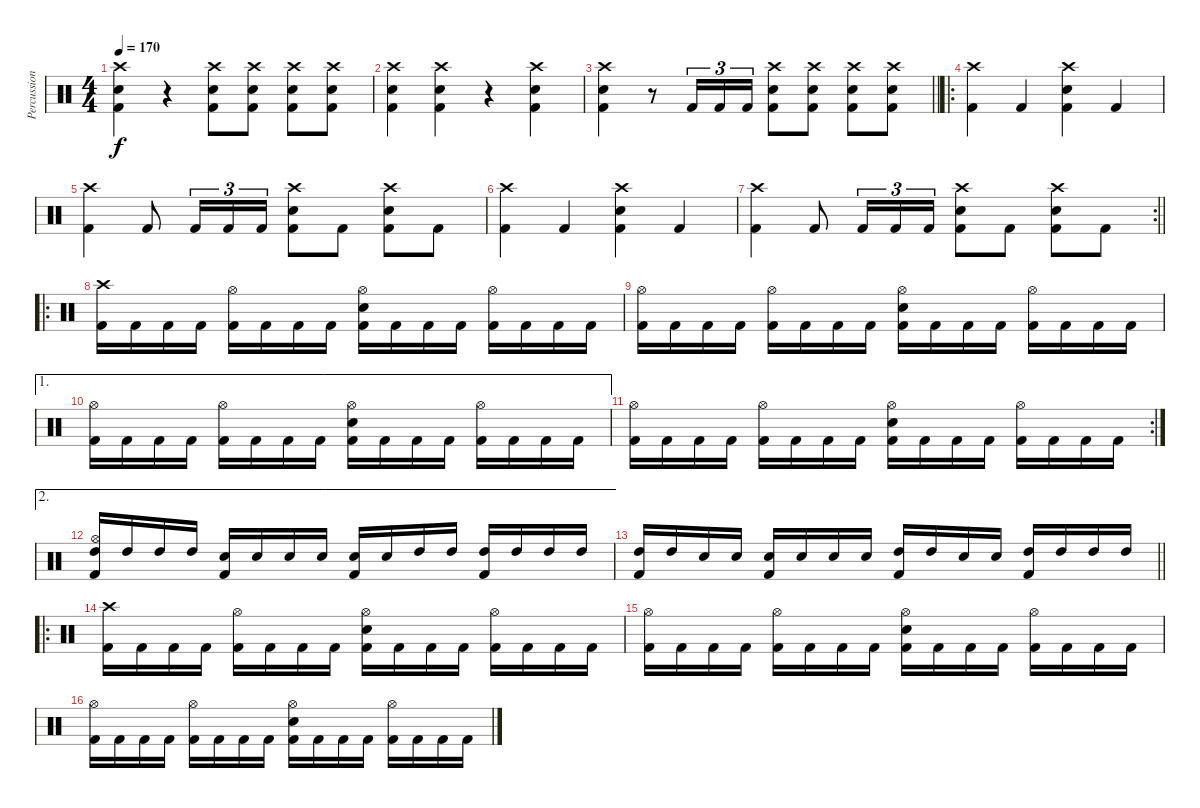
\track ("Percussion" "Percussion") {instrument percussion}
\staff {score}
\articulation defaults
\ts (4 4)
\tempo 170
\clef neutral
\ks c
("Crash high (hit)" "Electric Snare (hit)" "Kick (hit) 2").4{dy f} r.4 ("Crash high (hit)" "Electric Snare (hit)" "Kick (hit) 2").8 ("Crash high (hit)" "Electric Snare (hit)" "Kick (hit) 2").8 ("Crash high (hit)" "Electric Snare (hit)" "Kick (hit) 2").8 ("Crash high (hit)" "Electric Snare (hit)" "Kick (hit) 2").8 |
("Crash high (hit)" "Electric Snare (hit)" "Kick (hit) 2").4 ("Crash high (hit)" "Electric Snare (hit)" "Kick (hit) 2").4 r.4 ("Crash high (hit)" "Electric Snare (hit)" "Kick (hit) 2").4 |
\barLineRight lightlight
("Crash high (hit)" "Electric Snare (hit)" "Kick (hit) 2").4 r.8 "Kick (hit) 2".16{tu (3 2)} "Kick (hit) 2".16{tu (3 2)} "Kick (hit) 2".16{tu (3 2)} ("Crash high (hit)" "Electric Snare (hit)" "Kick (hit) 2").8 ("Crash high (hit)" "Electric Snare (hit)" "Kick (hit) 2").8 ("Crash high (hit)" "Electric Snare (hit)" "Kick (hit) 2").8 ("Crash high (hit)" "Electric Snare (hit)" "Kick (hit) 2").8 |
\ro
\section ("" "")
("Crash high (hit)" "Kick (hit) 2").4 "Kick (hit) 2".4 ("Crash high (hit)" "Electric Snare (hit)" "Kick (hit) 2").4 "Kick (hit) 2".4 |
("Crash high (hit)" "Kick (hit) 2").4 "Kick (hit) 2".8 "Kick (hit) 2".16{tu (3 2)} "Kick (hit) 2".16{tu (3 2)} "Kick (hit) 2".16{tu (3 2)} ("Crash high (hit)" "Electric Snare (hit)" "Kick (hit) 2").8 "Kick (hit) 2".8 ("Crash high (hit)" "Electric Snare (hit)" "Kick (hit) 2").8 "Kick (hit) 2".8 |
("Crash high (hit)" "Kick (hit) 2").4 "Kick (hit) 2".4 ("Crash high (hit)" "Electric Snare (hit)" "Kick (hit) 2").4 "Kick (hit) 2".4 |
\rc 2
\barLineRight lightlight
("Crash high (hit)" "Kick (hit) 2").4 "Kick (hit) 2".8 "Kick (hit) 2".16{tu (3 2)} "Kick (hit) 2".16{tu (3 2)} "Kick (hit) 2".16{tu (3 2)} ("Crash high (hit)" "Electric Snare (hit)" "Kick (hit) 2").8 "Kick (hit) 2".8 ("Crash high (hit)" "Electric Snare (hit)" "Kick (hit) 2").8 "Kick (hit) 2".8 |
\ro
\section ("" "")
("Crash high (hit)" "Kick (hit) 2").16 "Kick (hit) 2".16 "Kick (hit) 2".16 "Kick (hit) 2".16 ("Hi-Hat (open)" "Kick (hit) 2").16 "Kick (hit) 2".16 "Kick (hit) 2".16 "Kick (hit) 2".16 ("Hi-Hat (open)" "Electric Snare (hit)" "Kick (hit) 2").16 "Kick (hit) 2".16 "Kick (hit) 2".16 "Kick (hit) 2".16 ("Hi-Hat (open)" "Kick (hit) 2").16 "Kick (hit) 2".16 "Kick (hit) 2".16 "Kick (hit) 2".16 |
("Hi-Hat (open)" "Kick (hit) 2").16 "Kick (hit) 2".16 "Kick (hit) 2".16 "Kick (hit) 2".16 ("Hi-Hat (open)" "Kick (hit) 2").16 "Kick (hit) 2".16 "Kick (hit) 2".16 "Kick (hit) 2".16 ("Hi-Hat (open)" "Electric Snare (hit)" "Kick (hit) 2").16 "Kick (hit) 2".16 "Kick (hit) 2".16 "Kick (hit) 2".16 ("Hi-Hat (open)" "Kick (hit) 2").16 "Kick (hit) 2".16 "Kick (hit) 2".16 "Kick (hit) 2".16 |
\ae 1
("Hi-Hat (open)" "Kick (hit) 2").16 "Kick (hit) 2".16 "Kick (hit) 2".16 "Kick (hit) 2".16 ("Hi-Hat (open)" "Kick (hit) 2").16 "Kick (hit) 2".16 "Kick (hit) 2".16 "Kick (hit) 2".16 ("Hi-Hat (open)" "Electric Snare (hit)" "Kick (hit) 2").16 "Kick (hit) 2".16 "Kick (hit) 2".16 "Kick (hit) 2".16 ("Hi-Hat (open)" "Kick (hit) 2").16 "Kick (hit) 2".16 "Kick (hit) 2".16 "Kick (hit) 2".16 |
\rc 2
("Hi-Hat (open)" "Kick (hit) 2").16 "Kick (hit) 2".16 "Kick (hit) 2".16 "Kick (hit) 2".16 ("Hi-Hat (open)" "Kick (hit) 2").16 "Kick (hit) 2".16 "Kick (hit) 2".16 "Kick (hit) 2".16 ("Hi-Hat (open)" "Electric Snare (hit)" "Kick (hit) 2").16 "Kick (hit) 2".16 "Kick (hit) 2".16 "Kick (hit) 2".16 ("Hi-Hat (open)" "Kick (hit) 2").16 "Kick (hit) 2".16 "Kick (hit) 2".16 "Kick (hit) 2".16 |
\ae 2
("Hi-Hat (open)" "High Tom (hit)" "Kick (hit) 2").16 "High Tom (hit)".16 "High Tom (hit)".16 "High Tom (hit)".16 ("Electric Snare (hit)" "Kick (hit) 2").16 "Electric Snare (hit)".16 "Electric Snare (hit)".16 "Electric Snare (hit)".16 ("Electric Snare (hit)" "Kick (hit) 2").16 "Electric Snare (hit)".16 "High Tom (hit)".16 "High Tom (hit)".16 ("High Tom (hit)" "Kick (hit) 2").16 "High Tom (hit)".16 "High Tom (hit)".16 "High Tom (hit)".16 |
\barLineRight lightlight
("High Tom (hit)" "Kick (hit) 2").16 "High Tom (hit)".16 "Electric Snare (hit)".16 "Electric Snare (hit)".16 ("Electric Snare (hit)" "Kick (hit) 2").16 "Electric Snare (hit)".16 "Electric Snare (hit)".16 "Electric Snare (hit)".16 ("High Tom (hit)" "Kick (hit) 2").16 "High Tom (hit)".16 "Electric Snare (hit)".16 "Electric Snare (hit)".16 ("High Tom (hit)" "Kick (hit) 2").16 "High Tom (hit)".16 "High Tom (hit)".16 "High Tom (hit)".16 |
\ro
\section ("" "")
("Crash high (hit)" "Kick (hit) 2").16 "Kick (hit) 2".16 "Kick (hit) 2".16 "Kick (hit) 2".16 ("Hi-Hat (open)" "Kick (hit) 2").16 "Kick (hit) 2".16 "Kick (hit) 2".16 "Kick (hit) 2".16 ("Hi-Hat (open)" "Electric Snare (hit)" "Kick (hit) 2").16 "Kick (hit) 2".16 "Kick (hit) 2".16 "Kick (hit) 2".16 ("Hi-Hat (open)" "Kick (hit) 2").16 "Kick (hit) 2".16 "Kick (hit) 2".16 "Kick (hit) 2".16 |
("Hi-Hat (open)" "Kick (hit) 2").16 "Kick (hit) 2".16 "Kick (hit) 2".16 "Kick (hit) 2".16 ("Hi-Hat (open)" "Kick (hit) 2").16 "Kick (hit) 2".16 "Kick (hit) 2".16 "Kick (hit) 2".16 ("Hi-Hat (open)" "Electric Snare (hit)" "Kick (hit) 2").16 "Kick (hit) 2".16 "Kick (hit) 2".16 "Kick (hit) 2".16 ("Hi-Hat (open)" "Kick (hit) 2").16 "Kick (hit) 2".16 "Kick (hit) 2".16 "Kick (hit) 2".16 |
("Hi-Hat (open)" "Kick (hit) 2").16 "Kick (hit) 2".16 "Kick (hit) 2".16 "Kick (hit) 2".16 ("Hi-Hat (open)" "Kick (hit) 2").16 "Kick (hit) 2".16 "Kick (hit) 2".16 "Kick (hit) 2".16 ("Hi-Hat (open)" "Electric Snare (hit)" "Kick (hit) 2").16 "Kick (hit) 2".16 "Kick (hit) 2".16 "Kick (hit) 2".16 ("Hi-Hat (open)" "Kick (hit) 2").16 "Kick (hit) 2".16 "Kick (hit) 2".16 "Kick (hit) 2".16
